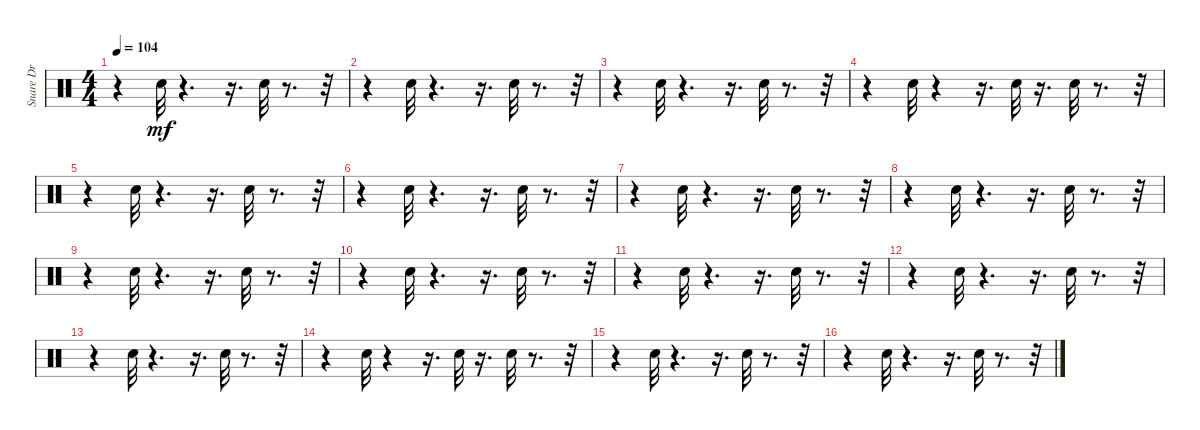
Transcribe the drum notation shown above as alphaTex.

\track ("  Snare Drum 1" "  Snare Dr") {instrument percussion}
\staff {score}
\articulation defaults
\ts (4 4)
\tempo 104
\clef neutral
\ks c
r.4{dy mf} "Snare (hit) 2".32 r.4{d} r.16{d} "Snare (hit) 2".32 r.8{d} r.32 |
r.4 "Snare (hit) 2".32 r.4{d} r.16{d} "Snare (hit) 2".32 r.8{d} r.32 |
r.4 "Snare (hit) 2".32 r.4{d} r.16{d} "Snare (hit) 2".32 r.8{d} r.32 |
r.4 "Snare (hit) 2".32 r.4 r.16{d} "Snare (hit) 2".32 r.16{d} "Snare (hit) 2".32 r.8{d} r.32 |
r.4 "Snare (hit) 2".32 r.4{d} r.16{d} "Snare (hit) 2".32 r.8{d} r.32 |
r.4 "Snare (hit) 2".32 r.4{d} r.16{d} "Snare (hit) 2".32 r.8{d} r.32 |
r.4 "Snare (hit) 2".32 r.4{d} r.16{d} "Snare (hit) 2".32 r.8{d} r.32 |
r.4 "Snare (hit) 2".32 r.4{d} r.16{d} "Snare (hit) 2".32 r.8{d} r.32 |
r.4 "Snare (hit) 2".32 r.4{d} r.16{d} "Snare (hit) 2".32 r.8{d} r.32 |
r.4 "Snare (hit) 2".32 r.4{d} r.16{d} "Snare (hit) 2".32 r.8{d} r.32 |
r.4 "Snare (hit) 2".32 r.4{d} r.16{d} "Snare (hit) 2".32 r.8{d} r.32 |
r.4 "Snare (hit) 2".32 r.4{d} r.16{d} "Snare (hit) 2".32 r.8{d} r.32 |
r.4 "Snare (hit) 2".32 r.4{d} r.16{d} "Snare (hit) 2".32 r.8{d} r.32 |
r.4 "Snare (hit) 2".32 r.4 r.16{d} "Snare (hit) 2".32 r.16{d} "Snare (hit) 2".32 r.8{d} r.32 |
r.4 "Snare (hit) 2".32 r.4{d} r.16{d} "Snare (hit) 2".32 r.8{d} r.32 |
r.4 "Snare (hit) 2".32 r.4{d} r.16{d} "Snare (hit) 2".32 r.8{d} r.32
